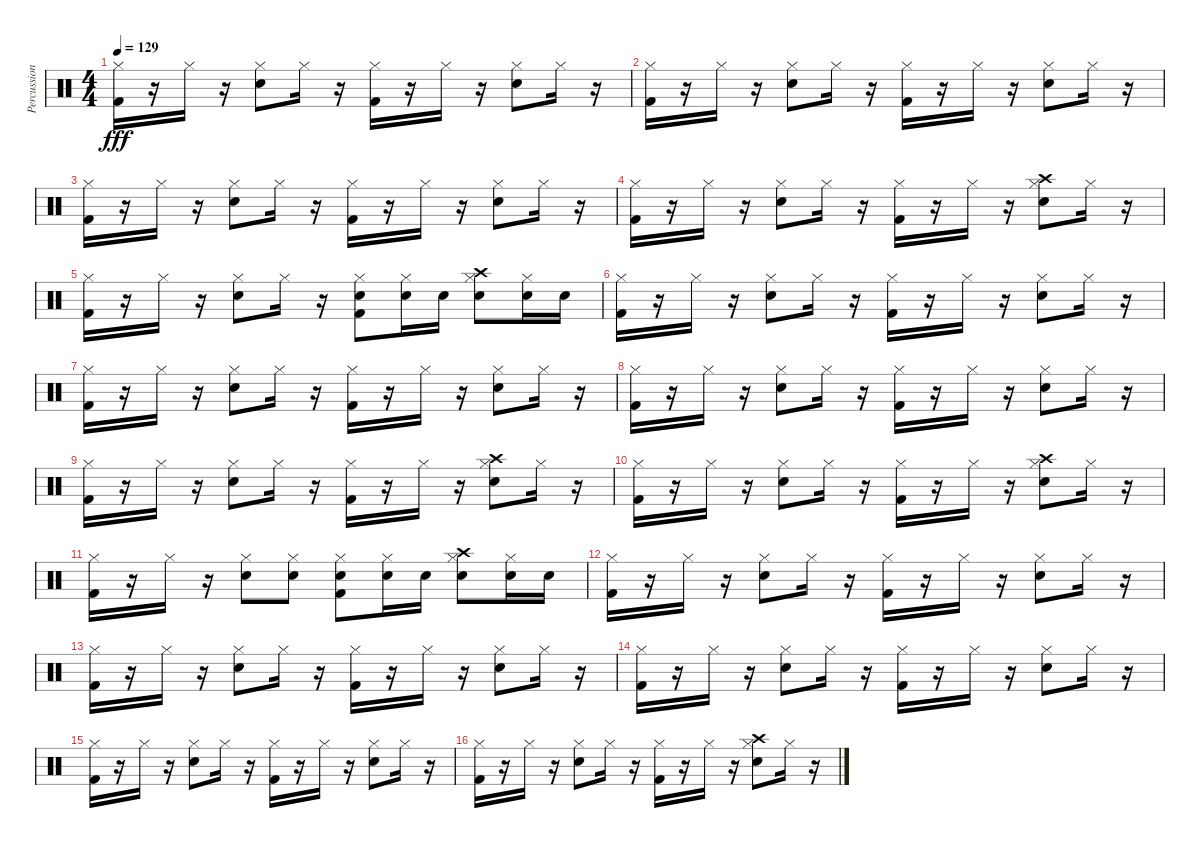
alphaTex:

\track ("Percussion" "Percussion") {instrument percussion}
\staff {score}
\articulation defaults
\ts (4 4)
\tempo 129
\clef neutral
\ks c
("Kick (hit) 2" "Hi-Hat (closed)").16{dy fff} r.16 "Hi-Hat (closed)".16 r.16 ("Snare (hit) 2" "Hi-Hat (closed)").8 "Hi-Hat (closed)".16 r.16 ("Kick (hit) 2" "Hi-Hat (closed)").16 r.16 "Hi-Hat (closed)".16 r.16 ("Snare (hit) 2" "Hi-Hat (closed)").8 "Hi-Hat (closed)".16 r.16 |
("Kick (hit) 2" "Hi-Hat (closed)").16 r.16 "Hi-Hat (closed)".16 r.16 ("Snare (hit) 2" "Hi-Hat (closed)").8 "Hi-Hat (closed)".16 r.16 ("Kick (hit) 2" "Hi-Hat (closed)").16 r.16 "Hi-Hat (closed)".16 r.16 ("Snare (hit) 2" "Hi-Hat (closed)").8 "Hi-Hat (closed)".16 r.16 |
("Kick (hit) 2" "Hi-Hat (closed)").16 r.16 "Hi-Hat (closed)".16 r.16 ("Snare (hit) 2" "Hi-Hat (closed)").8 "Hi-Hat (closed)".16 r.16 ("Kick (hit) 2" "Hi-Hat (closed)").16 r.16 "Hi-Hat (closed)".16 r.16 ("Snare (hit) 2" "Hi-Hat (closed)").8 "Hi-Hat (closed)".16 r.16 |
("Kick (hit) 2" "Hi-Hat (closed)").16 r.16 "Hi-Hat (closed)".16 r.16 ("Snare (hit) 2" "Hi-Hat (closed)").8 "Hi-Hat (closed)".16 r.16 ("Kick (hit) 2" "Hi-Hat (closed)").16 r.16 "Hi-Hat (closed)".16 r.16 ("Snare (hit) 2" "Hi-Hat (closed)" "Crash high (hit)").8 "Hi-Hat (closed)".16 r.16 |
("Kick (hit) 2" "Hi-Hat (closed)").16 r.16 "Hi-Hat (closed)".16 r.16 ("Snare (hit) 2" "Hi-Hat (closed)").8 "Hi-Hat (closed)".16 r.16 ("Kick (hit) 2" "Snare (hit) 2" "Hi-Hat (closed)").8 ("Snare (hit) 2" "Hi-Hat (closed)").16 "Snare (hit) 2".16 ("Snare (hit) 2" "Hi-Hat (closed)" "Crash high (hit)").8 ("Snare (hit) 2" "Hi-Hat (closed)").16 "Snare (hit) 2".16 |
("Kick (hit) 2" "Hi-Hat (closed)").16 r.16 "Hi-Hat (closed)".16 r.16 ("Snare (hit) 2" "Hi-Hat (closed)").8 "Hi-Hat (closed)".16 r.16 ("Kick (hit) 2" "Hi-Hat (closed)").16 r.16 "Hi-Hat (closed)".16 r.16 ("Snare (hit) 2" "Hi-Hat (closed)").8 "Hi-Hat (closed)".16 r.16 |
("Kick (hit) 2" "Hi-Hat (closed)").16 r.16 "Hi-Hat (closed)".16 r.16 ("Snare (hit) 2" "Hi-Hat (closed)").8 "Hi-Hat (closed)".16 r.16 ("Kick (hit) 2" "Hi-Hat (closed)").16 r.16 "Hi-Hat (closed)".16 r.16 ("Snare (hit) 2" "Hi-Hat (closed)").8 "Hi-Hat (closed)".16 r.16 |
("Kick (hit) 2" "Hi-Hat (closed)").16 r.16 "Hi-Hat (closed)".16 r.16 ("Snare (hit) 2" "Hi-Hat (closed)").8 "Hi-Hat (closed)".16 r.16 ("Kick (hit) 2" "Hi-Hat (closed)").16 r.16 "Hi-Hat (closed)".16 r.16 ("Snare (hit) 2" "Hi-Hat (closed)").8 "Hi-Hat (closed)".16 r.16 |
("Kick (hit) 2" "Hi-Hat (closed)").16 r.16 "Hi-Hat (closed)".16 r.16 ("Snare (hit) 2" "Hi-Hat (closed)").8 "Hi-Hat (closed)".16 r.16 ("Kick (hit) 2" "Hi-Hat (closed)").16 r.16 "Hi-Hat (closed)".16 r.16 ("Snare (hit) 2" "Hi-Hat (closed)" "Crash high (hit)").8 "Hi-Hat (closed)".16 r.16 |
("Kick (hit) 2" "Hi-Hat (closed)").16 r.16 "Hi-Hat (closed)".16 r.16 ("Snare (hit) 2" "Hi-Hat (closed)").8 "Hi-Hat (closed)".16 r.16 ("Kick (hit) 2" "Hi-Hat (closed)").16 r.16 "Hi-Hat (closed)".16 r.16 ("Snare (hit) 2" "Hi-Hat (closed)" "Crash high (hit)").8 "Hi-Hat (closed)".16 r.16 |
("Kick (hit) 2" "Hi-Hat (closed)").16 r.16 "Hi-Hat (closed)".16 r.16 ("Snare (hit) 2" "Hi-Hat (closed)").8 ("Snare (hit) 2" "Hi-Hat (closed)").8 ("Kick (hit) 2" "Snare (hit) 2" "Hi-Hat (closed)").8 ("Snare (hit) 2" "Hi-Hat (closed)").16 "Snare (hit) 2".16 ("Snare (hit) 2" "Hi-Hat (closed)" "Crash high (hit)").8 ("Snare (hit) 2" "Hi-Hat (closed)").16 "Snare (hit) 2".16 |
("Kick (hit) 2" "Hi-Hat (closed)").16 r.16 "Hi-Hat (closed)".16 r.16 ("Snare (hit) 2" "Hi-Hat (closed)").8 "Hi-Hat (closed)".16 r.16 ("Kick (hit) 2" "Hi-Hat (closed)").16 r.16 "Hi-Hat (closed)".16 r.16 ("Snare (hit) 2" "Hi-Hat (closed)").8 "Hi-Hat (closed)".16 r.16 |
("Kick (hit) 2" "Hi-Hat (closed)").16 r.16 "Hi-Hat (closed)".16 r.16 ("Snare (hit) 2" "Hi-Hat (closed)").8 "Hi-Hat (closed)".16 r.16 ("Kick (hit) 2" "Hi-Hat (closed)").16 r.16 "Hi-Hat (closed)".16 r.16 ("Snare (hit) 2" "Hi-Hat (closed)").8 "Hi-Hat (closed)".16 r.16 |
("Kick (hit) 2" "Hi-Hat (closed)").16 r.16 "Hi-Hat (closed)".16 r.16 ("Snare (hit) 2" "Hi-Hat (closed)").8 "Hi-Hat (closed)".16 r.16 ("Kick (hit) 2" "Hi-Hat (closed)").16 r.16 "Hi-Hat (closed)".16 r.16 ("Snare (hit) 2" "Hi-Hat (closed)").8 "Hi-Hat (closed)".16 r.16 |
("Kick (hit) 2" "Hi-Hat (closed)").16 r.16 "Hi-Hat (closed)".16 r.16 ("Snare (hit) 2" "Hi-Hat (closed)").8 "Hi-Hat (closed)".16 r.16 ("Kick (hit) 2" "Hi-Hat (closed)").16 r.16 "Hi-Hat (closed)".16 r.16 ("Snare (hit) 2" "Hi-Hat (closed)").8 "Hi-Hat (closed)".16 r.16 |
("Kick (hit) 2" "Hi-Hat (closed)").16 r.16 "Hi-Hat (closed)".16 r.16 ("Snare (hit) 2" "Hi-Hat (closed)").8 "Hi-Hat (closed)".16 r.16 ("Kick (hit) 2" "Hi-Hat (closed)").16 r.16 "Hi-Hat (closed)".16 r.16 ("Snare (hit) 2" "Hi-Hat (closed)" "Crash high (hit)").8 "Hi-Hat (closed)".16 r.16
